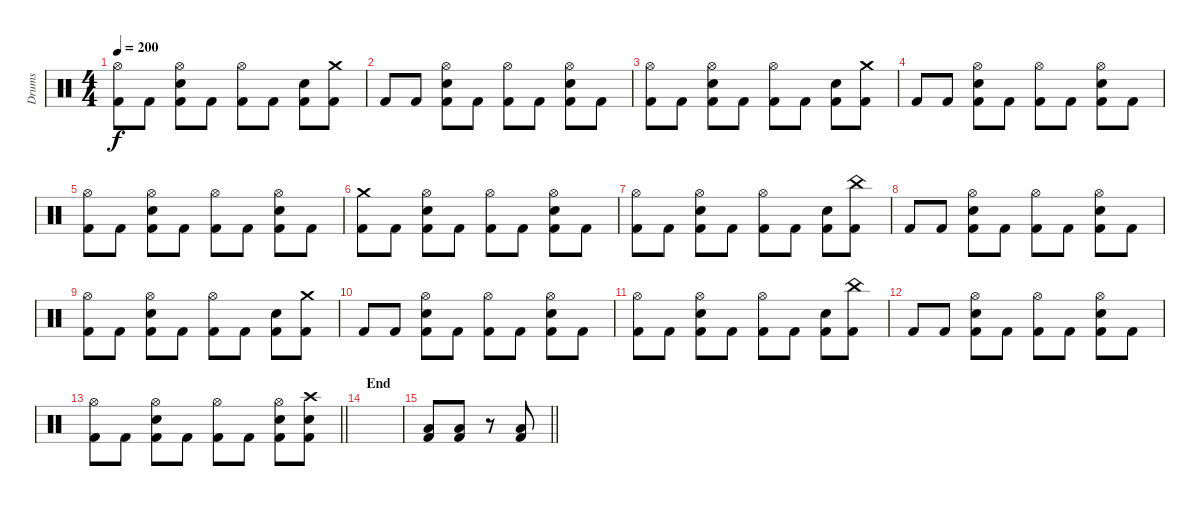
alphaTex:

\track ("Drums" "Drums") {instrument percussion}
\staff {score}
\articulation defaults
\ts (4 4)
\tempo 200
\clef neutral
\ks c
("Hi-Hat (open)" "Kick (hit) 2").8{dy f} "Kick (hit) 2".8 ("Hi-Hat (open)" "Snare (hit) 2" "Kick (hit) 2").8 "Kick (hit) 2".8 ("Hi-Hat (open)" "Kick (hit) 2").8 "Kick (hit) 2".8 ("Snare (hit) 2" "Kick (hit) 2").8 ("Crash medium (hit)" "Kick (hit) 2").8 |
"Kick (hit) 2".8 "Kick (hit) 2".8 ("Hi-Hat (open)" "Snare (hit) 2" "Kick (hit) 2").8 "Kick (hit) 2".8 ("Hi-Hat (open)" "Kick (hit) 2").8 "Kick (hit) 2".8 ("Hi-Hat (open)" "Snare (hit) 2" "Kick (hit) 2").8 "Kick (hit) 2".8 |
("Hi-Hat (open)" "Kick (hit) 2").8 "Kick (hit) 2".8 ("Hi-Hat (open)" "Snare (hit) 2" "Kick (hit) 2").8 "Kick (hit) 2".8 ("Hi-Hat (open)" "Kick (hit) 2").8 "Kick (hit) 2".8 ("Snare (hit) 2" "Kick (hit) 2").8 ("Crash medium (hit)" "Kick (hit) 2").8 |
"Kick (hit) 2".8 "Kick (hit) 2".8 ("Hi-Hat (open)" "Snare (hit) 2" "Kick (hit) 2").8 "Kick (hit) 2".8 ("Hi-Hat (open)" "Kick (hit) 2").8 "Kick (hit) 2".8 ("Hi-Hat (open)" "Snare (hit) 2" "Kick (hit) 2").8 "Kick (hit) 2".8 |
("Hi-Hat (open)" "Kick (hit) 2").8 "Kick (hit) 2".8 ("Hi-Hat (open)" "Snare (hit) 2" "Kick (hit) 2").8 "Kick (hit) 2".8 ("Hi-Hat (open)" "Kick (hit) 2").8 "Kick (hit) 2".8 ("Hi-Hat (open)" "Snare (hit) 2" "Kick (hit) 2").8 "Kick (hit) 2".8 |
("Crash medium (hit)" "Kick (hit) 2").8 "Kick (hit) 2".8 ("Hi-Hat (open)" "Snare (hit) 2" "Kick (hit) 2").8 "Kick (hit) 2".8 ("Hi-Hat (open)" "Kick (hit) 2").8 "Kick (hit) 2".8 ("Hi-Hat (open)" "Snare (hit) 2" "Kick (hit) 2").8 "Kick (hit) 2".8 |
("Hi-Hat (open)" "Kick (hit) 2").8 "Kick (hit) 2".8 ("Hi-Hat (open)" "Snare (hit) 2" "Kick (hit) 2").8 "Kick (hit) 2".8 ("Hi-Hat (open)" "Kick (hit) 2").8 "Kick (hit) 2".8 ("Snare (hit) 2" "Kick (hit) 2").8 ("China (hit)" "Kick (hit) 2").8 |
"Kick (hit) 2".8 "Kick (hit) 2".8 ("Hi-Hat (open)" "Snare (hit) 2" "Kick (hit) 2").8 "Kick (hit) 2".8 ("Hi-Hat (open)" "Kick (hit) 2").8 "Kick (hit) 2".8 ("Hi-Hat (open)" "Snare (hit) 2" "Kick (hit) 2").8 "Kick (hit) 2".8 |
("Hi-Hat (open)" "Kick (hit) 2").8 "Kick (hit) 2".8 ("Hi-Hat (open)" "Snare (hit) 2" "Kick (hit) 2").8 "Kick (hit) 2".8 ("Hi-Hat (open)" "Kick (hit) 2").8 "Kick (hit) 2".8 ("Snare (hit) 2" "Kick (hit) 2").8 ("Crash medium (hit)" "Kick (hit) 2").8 |
"Kick (hit) 2".8 "Kick (hit) 2".8 ("Hi-Hat (open)" "Snare (hit) 2" "Kick (hit) 2").8 "Kick (hit) 2".8 ("Hi-Hat (open)" "Kick (hit) 2").8 "Kick (hit) 2".8 ("Hi-Hat (open)" "Snare (hit) 2" "Kick (hit) 2").8 "Kick (hit) 2".8 |
("Hi-Hat (open)" "Kick (hit) 2").8 "Kick (hit) 2".8 ("Hi-Hat (open)" "Snare (hit) 2" "Kick (hit) 2").8 "Kick (hit) 2".8 ("Hi-Hat (open)" "Kick (hit) 2").8 "Kick (hit) 2".8 ("Snare (hit) 2" "Kick (hit) 2").8 ("China (hit)" "Kick (hit) 2").8 |
"Kick (hit) 2".8 "Kick (hit) 2".8 ("Hi-Hat (open)" "Snare (hit) 2" "Kick (hit) 2").8 "Kick (hit) 2".8 ("Hi-Hat (open)" "Kick (hit) 2").8 "Kick (hit) 2".8 ("Hi-Hat (open)" "Snare (hit) 2" "Kick (hit) 2").8 "Kick (hit) 2".8 |
\barLineRight lightlight
("Hi-Hat (open)" "Kick (hit) 2").8 "Kick (hit) 2".8 ("Hi-Hat (open)" "Snare (hit) 2" "Kick (hit) 2").8 "Kick (hit) 2".8 ("Hi-Hat (open)" "Kick (hit) 2").8 "Kick (hit) 2".8 ("Hi-Hat (open)" "Snare (hit) 2" "Kick (hit) 2").8 ("Crash high (hit)" "Snare (hit) 2" "Kick (hit) 2").8 |
\section ("" "End")
|
\barLineRight lightlight
("Low Tom (hit)" "Kick (hit) 2").8 ("Low Tom (hit)" "Kick (hit) 2").8 r.8 ("Low Tom (hit)" "Kick (hit) 2").8
